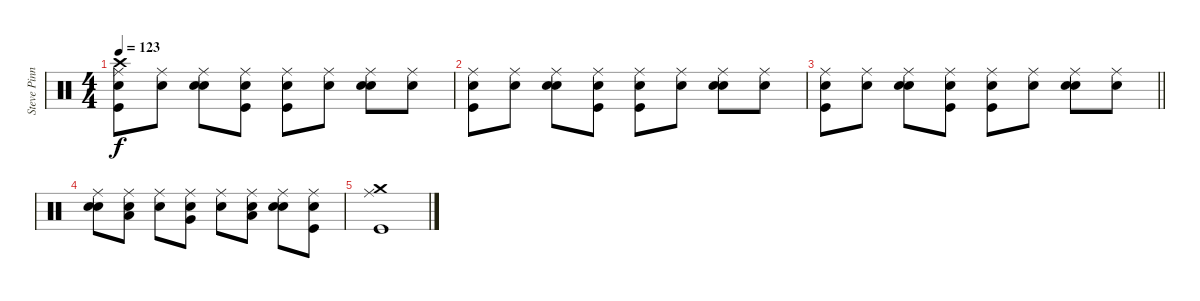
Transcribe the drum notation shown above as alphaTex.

\track ("Steve Pinnell - Drums" "Steve Pinn") {instrument percussion}
\staff {score}
\articulation defaults
\ts (4 4)
\tempo 123
\clef neutral
\ks c
("Crash high (hit)" "Kick (hit)" "Ride (middle)" "Snare (hit)").8{dy f} ("Ride (middle)" "Snare (hit)").8 ("Metronome (bell)" "Ride (middle)" "Snare (hit)").8 ("Kick (hit)" "Ride (middle)" "Snare (hit)").8 ("Kick (hit)" "Ride (middle)" "Snare (hit)").8 ("Ride (middle)" "Snare (hit)").8 ("Metronome (bell)" "Ride (middle)" "Snare (hit)").8 ("Ride (middle)" "Snare (hit)").8 |
("Kick (hit)" "Ride (middle)" "Snare (hit)").8 ("Ride (middle)" "Snare (hit)").8 ("Metronome (bell)" "Ride (middle)" "Snare (hit)").8 ("Kick (hit)" "Ride (middle)" "Snare (hit)").8 ("Kick (hit)" "Ride (middle)" "Snare (hit)").8 ("Ride (middle)" "Snare (hit)").8 ("Metronome (bell)" "Ride (middle)" "Snare (hit)").8 ("Ride (middle)" "Snare (hit)").8 |
\barLineRight lightlight
("Kick (hit)" "Ride (middle)" "Snare (hit)").8 ("Ride (middle)" "Snare (hit)").8 ("Metronome (bell)" "Ride (middle)" "Snare (hit)").8 ("Kick (hit)" "Ride (middle)" "Snare (hit)").8 ("Kick (hit)" "Ride (middle)" "Snare (hit)").8 ("Ride (middle)" "Snare (hit)").8 ("Metronome (bell)" "Ride (middle)" "Snare (hit)").8 ("Ride (middle)" "Snare (hit)").8 |
("Metronome (bell)" "Ride (middle)" "Snare (hit)").8{volume 16 balance 8} ("Low Tom (hit)" "Ride (middle)" "Snare (hit)").8 ("Ride (middle)" "Snare (hit)").8 ("Very Low Tom (hit)" "Ride (middle)" "Snare (hit)").8 ("Ride (middle)" "Snare (hit)").8 ("Low Floor Tom (hit)" "Ride (middle)" "Snare (hit)").8 ("Metronome (bell)" "Ride (middle)" "Snare (hit)").8 ("Kick (hit)" "Ride (middle)" "Snare (hit)").8 |
("Crash medium (hit)" "Kick (hit)" "Ride (middle)").1
